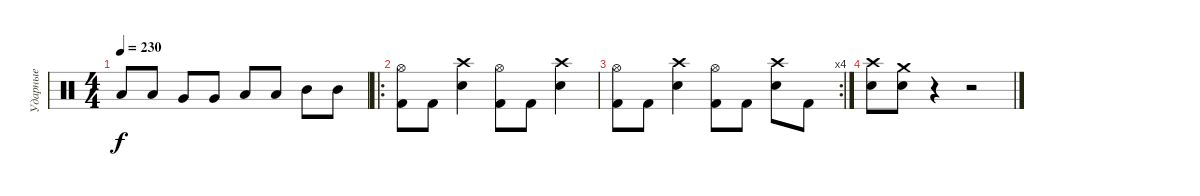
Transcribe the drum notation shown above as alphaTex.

\track ("Ударные" "Ударные") {instrument percussion}
\staff {score}
\articulation defaults
\ts (4 4)
\tempo 230
\clef neutral
\ks c "Low Floor Tom (hit)".8{dy f} "Low Floor Tom (hit)".8 "Very Low Tom (hit)".8 "Very Low Tom (hit)".8 "Low Tom (hit)".8 "Low Tom (hit)".8 "Mid Tom (hit)".8 "Mid Tom (hit)".8
|
\ro
("Hi-Hat (open)" "Kick (hit) 2").8 "Kick (hit) 2".8 ("Crash high (hit)" "Snare (hit) 2").4 ("Hi-Hat (open)" "Kick (hit) 2").8 "Kick (hit) 2".8 ("Crash high (hit)" "Snare (hit) 2").4 |
\rc 4
("Hi-Hat (open)" "Kick (hit) 2").8 "Kick (hit) 2".8 ("Crash high (hit)" "Snare (hit) 2").4 ("Hi-Hat (open)" "Kick (hit) 2").8 "Kick (hit) 2".8 ("Crash high (hit)" "Snare (hit) 2").8 "Kick (hit) 2".8 |
("Crash high (hit)" "Snare (hit) 2").8 ("Crash medium (hit)" "Snare (hit) 2").8 r.4 r.2
